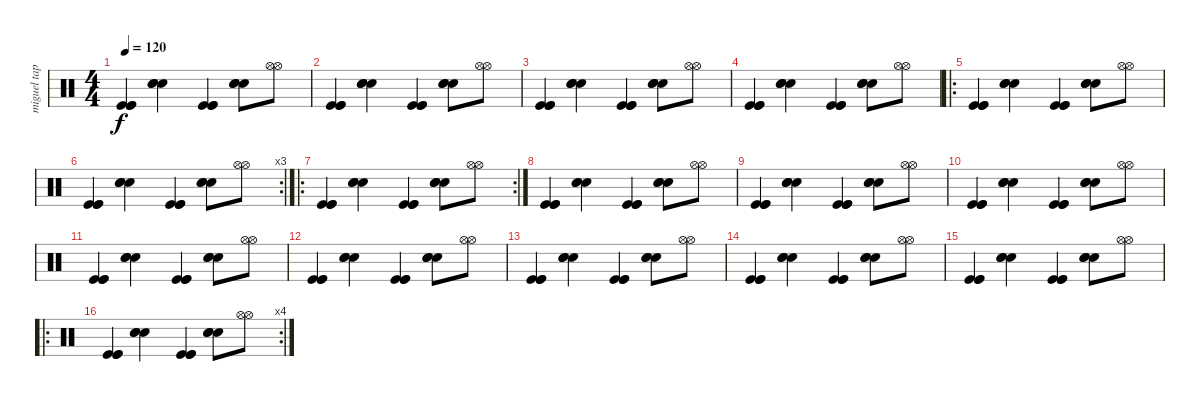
\track ("miguel tapia" "miguel tap") {instrument percussion}
\staff {score}
\articulation defaults
\ts (4 4)
\tempo 120
\clef neutral
\ks c
("Kick (hit)" "Kick (hit)" "Kick (hit)").4{dy f} ("Snare (hit) 2" "Snare (hit) 2" "Snare (hit) 2").4 ("Kick (hit)" "Kick (hit)" "Kick (hit)").4 ("Snare (hit) 2" "Snare (hit) 2" "Snare (hit) 2").8 ("Hi-Hat (open)" "Hi-Hat (open)").8 |
("Kick (hit)" "Kick (hit)" "Kick (hit)").4 ("Snare (hit) 2" "Snare (hit) 2" "Snare (hit) 2").4 ("Kick (hit)" "Kick (hit)" "Kick (hit)").4 ("Snare (hit) 2" "Snare (hit) 2" "Snare (hit) 2").8 ("Hi-Hat (open)" "Hi-Hat (open)").8 |
("Kick (hit)" "Kick (hit)" "Kick (hit)").4 ("Snare (hit) 2" "Snare (hit) 2" "Snare (hit) 2").4 ("Kick (hit)" "Kick (hit)" "Kick (hit)").4 ("Snare (hit) 2" "Snare (hit) 2" "Snare (hit) 2").8 ("Hi-Hat (open)" "Hi-Hat (open)").8 |
("Kick (hit)" "Kick (hit)" "Kick (hit)").4 ("Snare (hit) 2" "Snare (hit) 2" "Snare (hit) 2").4 ("Kick (hit)" "Kick (hit)" "Kick (hit)").4 ("Snare (hit) 2" "Snare (hit) 2" "Snare (hit) 2").8 ("Hi-Hat (open)" "Hi-Hat (open)").8 |
\ro
("Kick (hit)" "Kick (hit)" "Kick (hit)").4 ("Snare (hit) 2" "Snare (hit) 2" "Snare (hit) 2").4 ("Kick (hit)" "Kick (hit)" "Kick (hit)").4 ("Snare (hit) 2" "Snare (hit) 2" "Snare (hit) 2").8 ("Hi-Hat (open)" "Hi-Hat (open)").8 |
\rc 3
("Kick (hit)" "Kick (hit)" "Kick (hit)").4 ("Snare (hit) 2" "Snare (hit) 2" "Snare (hit) 2").4 ("Kick (hit)" "Kick (hit)" "Kick (hit)").4 ("Snare (hit) 2" "Snare (hit) 2" "Snare (hit) 2").8 ("Hi-Hat (open)" "Hi-Hat (open)").8 |
\ro
\rc 2
("Kick (hit)" "Kick (hit)" "Kick (hit)").4 ("Snare (hit) 2" "Snare (hit) 2" "Snare (hit) 2").4 ("Kick (hit)" "Kick (hit)" "Kick (hit)").4 ("Snare (hit) 2" "Snare (hit) 2" "Snare (hit) 2").8 ("Hi-Hat (open)" "Hi-Hat (open)").8 |
("Kick (hit)" "Kick (hit)" "Kick (hit)").4 ("Snare (hit) 2" "Snare (hit) 2" "Snare (hit) 2").4 ("Kick (hit)" "Kick (hit)" "Kick (hit)").4 ("Snare (hit) 2" "Snare (hit) 2" "Snare (hit) 2").8 ("Hi-Hat (open)" "Hi-Hat (open)").8 |
("Kick (hit)" "Kick (hit)" "Kick (hit)").4 ("Snare (hit) 2" "Snare (hit) 2" "Snare (hit) 2").4 ("Kick (hit)" "Kick (hit)" "Kick (hit)").4 ("Snare (hit) 2" "Snare (hit) 2" "Snare (hit) 2").8 ("Hi-Hat (open)" "Hi-Hat (open)").8 |
("Kick (hit)" "Kick (hit)" "Kick (hit)").4 ("Snare (hit) 2" "Snare (hit) 2" "Snare (hit) 2").4 ("Kick (hit)" "Kick (hit)" "Kick (hit)").4 ("Snare (hit) 2" "Snare (hit) 2" "Snare (hit) 2").8 ("Hi-Hat (open)" "Hi-Hat (open)").8 |
("Kick (hit)" "Kick (hit)" "Kick (hit)").4 ("Snare (hit) 2" "Snare (hit) 2" "Snare (hit) 2").4 ("Kick (hit)" "Kick (hit)" "Kick (hit)").4 ("Snare (hit) 2" "Snare (hit) 2" "Snare (hit) 2").8 ("Hi-Hat (open)" "Hi-Hat (open)").8 |
("Kick (hit)" "Kick (hit)" "Kick (hit)").4 ("Snare (hit) 2" "Snare (hit) 2" "Snare (hit) 2").4 ("Kick (hit)" "Kick (hit)" "Kick (hit)").4 ("Snare (hit) 2" "Snare (hit) 2" "Snare (hit) 2").8 ("Hi-Hat (open)" "Hi-Hat (open)").8 |
("Kick (hit)" "Kick (hit)" "Kick (hit)").4 ("Snare (hit) 2" "Snare (hit) 2" "Snare (hit) 2").4 ("Kick (hit)" "Kick (hit)" "Kick (hit)").4 ("Snare (hit) 2" "Snare (hit) 2" "Snare (hit) 2").8 ("Hi-Hat (open)" "Hi-Hat (open)").8 |
("Kick (hit)" "Kick (hit)" "Kick (hit)").4 ("Snare (hit) 2" "Snare (hit) 2" "Snare (hit) 2").4 ("Kick (hit)" "Kick (hit)" "Kick (hit)").4 ("Snare (hit) 2" "Snare (hit) 2" "Snare (hit) 2").8 ("Hi-Hat (open)" "Hi-Hat (open)").8 |
("Kick (hit)" "Kick (hit)" "Kick (hit)").4 ("Snare (hit) 2" "Snare (hit) 2" "Snare (hit) 2").4 ("Kick (hit)" "Kick (hit)" "Kick (hit)").4 ("Snare (hit) 2" "Snare (hit) 2" "Snare (hit) 2").8 ("Hi-Hat (open)" "Hi-Hat (open)").8 |
\ro
\rc 4
("Kick (hit)" "Kick (hit)" "Kick (hit)").4 ("Snare (hit) 2" "Snare (hit) 2" "Snare (hit) 2").4 ("Kick (hit)" "Kick (hit)" "Kick (hit)").4 ("Snare (hit) 2" "Snare (hit) 2" "Snare (hit) 2").8 ("Hi-Hat (open)" "Hi-Hat (open)").8
